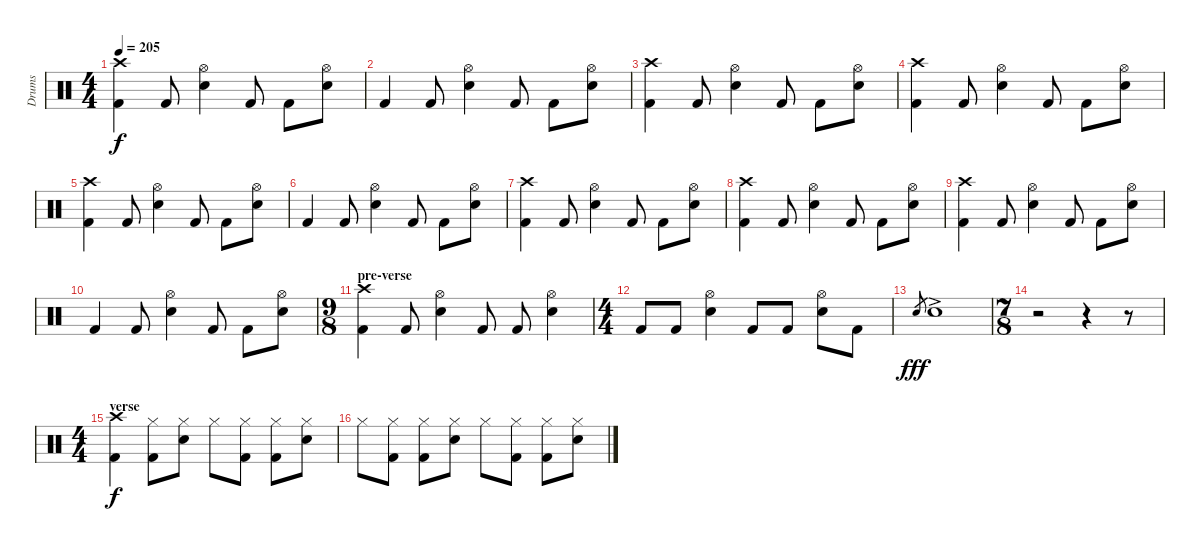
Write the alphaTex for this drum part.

\track ("Drums" "Drums") {instrument percussion}
\staff {score}
\articulation defaults
\ts (4 4)
\tempo 205
\clef neutral
\ks c
("Crash high (hit)" "Kick (hit) 2").4{dy f} "Kick (hit) 2".8 ("Hi-Hat (open)" "Electric Snare (hit)").4 "Kick (hit) 2".8 "Kick (hit) 2".8 ("Hi-Hat (open)" "Electric Snare (hit)").8 |
"Kick (hit) 2".4 "Kick (hit) 2".8 ("Hi-Hat (open)" "Electric Snare (hit)").4 "Kick (hit) 2".8 "Kick (hit) 2".8 ("Hi-Hat (open)" "Electric Snare (hit)").8 |
("Crash high (hit)" "Kick (hit) 2").4 "Kick (hit) 2".8 ("Hi-Hat (open)" "Electric Snare (hit)").4 "Kick (hit) 2".8 "Kick (hit) 2".8 ("Hi-Hat (open)" "Electric Snare (hit)").8 |
("Crash high (hit)" "Kick (hit) 2").4 "Kick (hit) 2".8 ("Hi-Hat (open)" "Electric Snare (hit)").4 "Kick (hit) 2".8 "Kick (hit) 2".8 ("Hi-Hat (open)" "Electric Snare (hit)").8 |
("Crash high (hit)" "Kick (hit) 2").4 "Kick (hit) 2".8 ("Hi-Hat (open)" "Electric Snare (hit)").4 "Kick (hit) 2".8 "Kick (hit) 2".8 ("Hi-Hat (open)" "Electric Snare (hit)").8 |
"Kick (hit) 2".4 "Kick (hit) 2".8 ("Hi-Hat (open)" "Electric Snare (hit)").4 "Kick (hit) 2".8 "Kick (hit) 2".8 ("Hi-Hat (open)" "Electric Snare (hit)").8 |
("Crash high (hit)" "Kick (hit) 2").4 "Kick (hit) 2".8 ("Hi-Hat (open)" "Electric Snare (hit)").4 "Kick (hit) 2".8 "Kick (hit) 2".8 ("Hi-Hat (open)" "Electric Snare (hit)").8 |
("Crash high (hit)" "Kick (hit) 2").4 "Kick (hit) 2".8 ("Hi-Hat (open)" "Electric Snare (hit)").4 "Kick (hit) 2".8 "Kick (hit) 2".8 ("Hi-Hat (open)" "Electric Snare (hit)").8 |
("Crash high (hit)" "Kick (hit) 2").4 "Kick (hit) 2".8 ("Hi-Hat (open)" "Electric Snare (hit)").4 "Kick (hit) 2".8 "Kick (hit) 2".8 ("Hi-Hat (open)" "Electric Snare (hit)").8 |
"Kick (hit) 2".4 "Kick (hit) 2".8 ("Hi-Hat (open)" "Electric Snare (hit)").4 "Kick (hit) 2".8 "Kick (hit) 2".8 ("Hi-Hat (open)" "Electric Snare (hit)").8 |
\ts (9 8)
\section ("" "pre-verse")
("Crash high (hit)" "Kick (hit) 2").4 "Kick (hit) 2".8 ("Hi-Hat (open)" "Electric Snare (hit)").4 "Kick (hit) 2".8 "Kick (hit) 2".8 ("Hi-Hat (open)" "Electric Snare (hit)").4 |
\ts (4 4)
"Kick (hit) 2".8 "Kick (hit) 2".8 ("Hi-Hat (open)" "Electric Snare (hit)").4 "Kick (hit) 2".8 "Kick (hit) 2".8 ("Hi-Hat (open)" "Electric Snare (hit)").8 "Kick (hit) 2".8 |
"Electric Snare (hit)".8{gr dy fff} "Electric Snare (hit)"{ac}.1 |
\ts (7 8)
r.2 r.4 r.8 |
\ts (4 4)
\section ("" "verse")
("Crash high (hit)" "Kick (hit) 2").4{dy f} ("Hi-Hat (closed)" "Kick (hit) 2").8 ("Hi-Hat (closed)" "Electric Snare (hit)").8 "Hi-Hat (closed)".8 ("Hi-Hat (closed)" "Kick (hit) 2").8 ("Hi-Hat (closed)" "Kick (hit) 2").8 ("Hi-Hat (closed)" "Electric Snare (hit)").8 |
"Hi-Hat (closed)".8 ("Hi-Hat (closed)" "Kick (hit) 2").8 ("Hi-Hat (closed)" "Kick (hit) 2").8 ("Hi-Hat (closed)" "Electric Snare (hit)").8 "Hi-Hat (closed)".8 ("Hi-Hat (closed)" "Kick (hit) 2").8 ("Hi-Hat (closed)" "Kick (hit) 2").8 ("Hi-Hat (closed)" "Electric Snare (hit)").8
